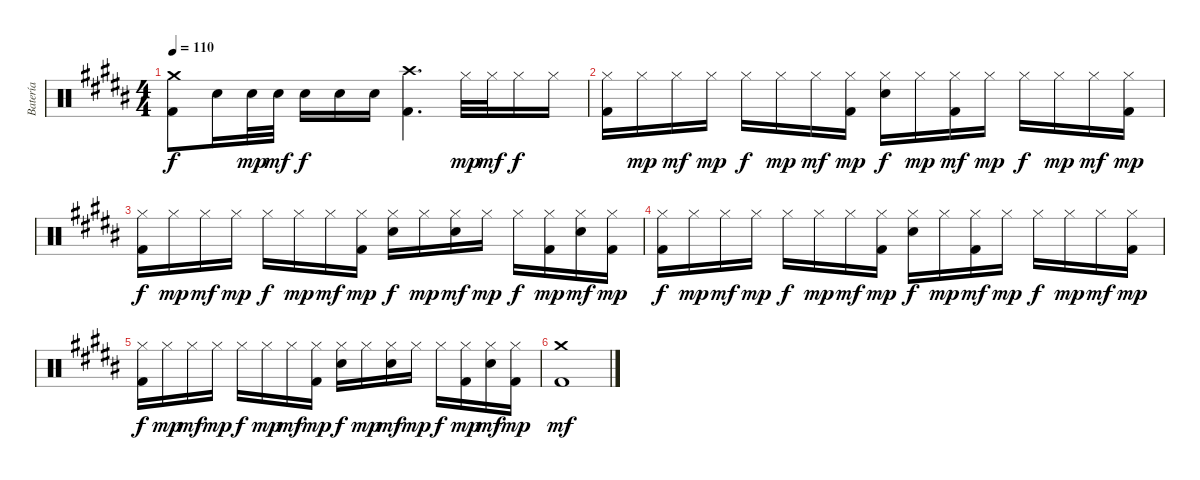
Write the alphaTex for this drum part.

\track ("Batería" "Batería") {instrument percussion}
\staff {score}
\articulation defaults
\ts (4 4)
\tempo 110
\clef neutral
\ks b
("Crash medium (hit)" "Kick (hit) 2").8{dy f} "Electric Snare (hit)".16 "Electric Snare (hit)".32{dy mp} "Electric Snare (hit)".32{dy mf} "Electric Snare (hit)".16{dy f} "Electric Snare (hit)".16 "Electric Snare (hit)".16 ("Crash high (hit)" "Kick (hit) 2").4{d} "Hi-Hat (closed)".32{dy mp} "Hi-Hat (closed)".32{dy mf} "Hi-Hat (closed)".16{dy f} "Hi-Hat (closed)".16 |
("Hi-Hat (closed)" "Kick (hit) 2").16 "Hi-Hat (closed)".16{dy mp} "Hi-Hat (closed)".16{dy mf} "Hi-Hat (closed)".16{dy mp} "Hi-Hat (closed)".16{dy f} "Hi-Hat (closed)".16{dy mp} "Hi-Hat (closed)".16{dy mf} ("Hi-Hat (closed)" "Kick (hit) 2").16{dy mp} ("Hi-Hat (closed)" "Electric Snare (hit)").16{dy f} "Hi-Hat (closed)".16{dy mp} ("Hi-Hat (closed)" "Kick (hit) 2").16{dy mf} "Hi-Hat (closed)".16{dy mp} "Hi-Hat (closed)".16{dy f} "Hi-Hat (closed)".16{dy mp} "Hi-Hat (closed)".16{dy mf} ("Hi-Hat (closed)" "Kick (hit) 2").16{dy mp} |
("Hi-Hat (closed)" "Kick (hit) 2").16{dy f} "Hi-Hat (closed)".16{dy mp} "Hi-Hat (closed)".16{dy mf} "Hi-Hat (closed)".16{dy mp} "Hi-Hat (closed)".16{dy f} "Hi-Hat (closed)".16{dy mp} "Hi-Hat (closed)".16{dy mf} ("Hi-Hat (closed)" "Kick (hit) 2").16{dy mp} ("Hi-Hat (closed)" "Electric Snare (hit)").16{dy f} "Hi-Hat (closed)".16{dy mp} ("Hi-Hat (closed)" "Electric Snare (hit)").16{dy mf} "Hi-Hat (closed)".16{dy mp} "Hi-Hat (closed)".16{dy f} ("Hi-Hat (closed)" "Kick (hit) 2").16{dy mp} ("Hi-Hat (closed)" "Electric Snare (hit)").16{dy mf} ("Hi-Hat (closed)" "Kick (hit) 2").16{dy mp} |
("Hi-Hat (closed)" "Kick (hit) 2").16{dy f} "Hi-Hat (closed)".16{dy mp} "Hi-Hat (closed)".16{dy mf} "Hi-Hat (closed)".16{dy mp} "Hi-Hat (closed)".16{dy f} "Hi-Hat (closed)".16{dy mp} "Hi-Hat (closed)".16{dy mf} ("Hi-Hat (closed)" "Kick (hit) 2").16{dy mp} ("Hi-Hat (closed)" "Electric Snare (hit)").16{dy f} "Hi-Hat (closed)".16{dy mp} ("Hi-Hat (closed)" "Kick (hit) 2").16{dy mf} "Hi-Hat (closed)".16{dy mp} "Hi-Hat (closed)".16{dy f} "Hi-Hat (closed)".16{dy mp} "Hi-Hat (closed)".16{dy mf} ("Hi-Hat (closed)" "Kick (hit) 2").16{dy mp} |
("Hi-Hat (closed)" "Kick (hit) 2").16{dy f} "Hi-Hat (closed)".16{dy mp} "Hi-Hat (closed)".16{dy mf} "Hi-Hat (closed)".16{dy mp} "Hi-Hat (closed)".16{dy f} "Hi-Hat (closed)".16{dy mp} "Hi-Hat (closed)".16{dy mf} ("Hi-Hat (closed)" "Kick (hit) 2").16{dy mp} ("Hi-Hat (closed)" "Electric Snare (hit)").16{dy f} "Hi-Hat (closed)".16{dy mp} ("Hi-Hat (closed)" "Electric Snare (hit)").16{dy mf} "Hi-Hat (closed)".16{dy mp} "Hi-Hat (closed)".16{dy f} ("Hi-Hat (closed)" "Kick (hit) 2").16{dy mp} ("Hi-Hat (closed)" "Electric Snare (hit)").16{dy mf} ("Hi-Hat (closed)" "Kick (hit) 2").16{dy mp} |
("Crash medium (hit)" "Kick (hit) 2").1{dy mf}
